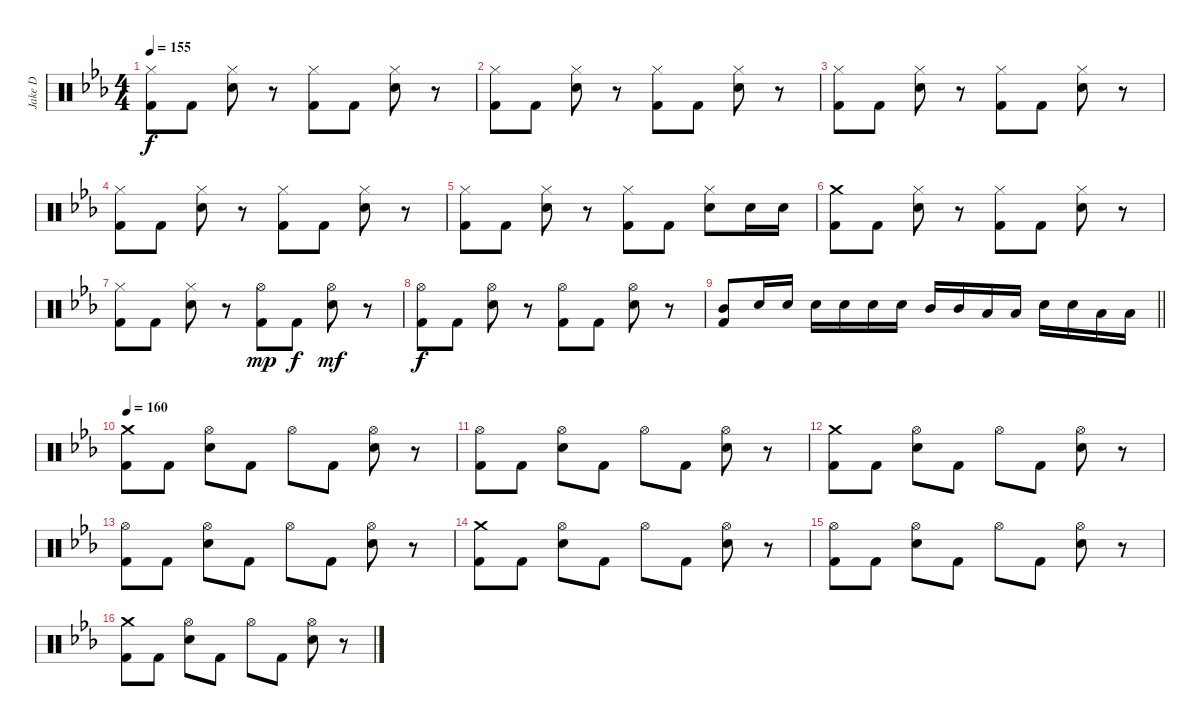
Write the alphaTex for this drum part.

\track ("Jake D" "Jake D") {instrument percussion}
\staff {score}
\articulation defaults
\ts (4 4)
\tempo 155
\clef neutral
\ks cminor
("Hi-Hat (closed)" "Kick (hit) 2").8{dy f} "Kick (hit) 2".8 ("Hi-Hat (closed)" "Electric Snare (hit)").8 r.8 ("Hi-Hat (closed)" "Kick (hit) 2").8 "Kick (hit) 2".8 ("Hi-Hat (closed)" "Electric Snare (hit)").8 r.8 |
("Hi-Hat (closed)" "Kick (hit) 2").8 "Kick (hit) 2".8 ("Hi-Hat (closed)" "Electric Snare (hit)").8 r.8 ("Hi-Hat (closed)" "Kick (hit) 2").8 "Kick (hit) 2".8 ("Hi-Hat (closed)" "Electric Snare (hit)").8 r.8 |
("Hi-Hat (closed)" "Kick (hit) 2").8 "Kick (hit) 2".8 ("Hi-Hat (closed)" "Electric Snare (hit)").8 r.8 ("Hi-Hat (closed)" "Kick (hit) 2").8 "Kick (hit) 2".8 ("Hi-Hat (closed)" "Electric Snare (hit)").8 r.8 |
("Hi-Hat (closed)" "Kick (hit) 2").8 "Kick (hit) 2".8 ("Hi-Hat (closed)" "Electric Snare (hit)").8 r.8 ("Hi-Hat (closed)" "Kick (hit) 2").8 "Kick (hit) 2".8 ("Hi-Hat (closed)" "Electric Snare (hit)").8 r.8 |
("Hi-Hat (closed)" "Kick (hit) 2").8 "Kick (hit) 2".8 ("Hi-Hat (closed)" "Electric Snare (hit)").8 r.8 ("Hi-Hat (closed)" "Kick (hit) 2").8 "Kick (hit) 2".8 ("Hi-Hat (closed)" "Electric Snare (hit)").8 "Electric Snare (hit)".16 "Electric Snare (hit)".16 |
("Crash medium (hit)" "Kick (hit) 2").8 "Kick (hit) 2".8 ("Hi-Hat (closed)" "Electric Snare (hit)").8 r.8 ("Hi-Hat (closed)" "Kick (hit) 2").8 "Kick (hit) 2".8 ("Hi-Hat (closed)" "Electric Snare (hit)").8 r.8 |
("Hi-Hat (closed)" "Kick (hit) 2").8 "Kick (hit) 2".8 ("Hi-Hat (closed)" "Electric Snare (hit)").8 r.8 ("Hi-Hat (open)" "Kick (hit) 2").8{dy mp} "Kick (hit) 2".8{dy f} ("Hi-Hat (open)" "Electric Snare (hit)").8{dy mf} r.8 |
("Hi-Hat (open)" "Kick (hit) 2").8{dy f} "Kick (hit) 2".8 ("Hi-Hat (open)" "Electric Snare (hit)").8 r.8 ("Hi-Hat (open)" "Kick (hit) 2").8 "Kick (hit) 2".8 ("Hi-Hat (open)" "Electric Snare (hit)").8 r.8 |
\barLineRight lightlight
("Mid Tom (hit)" "Kick (hit) 2").8 "Electric Snare (hit)".16 "Electric Snare (hit)".16 "Electric Snare (hit)".16 "Electric Snare (hit)".16 "Electric Snare (hit)".16 "Electric Snare (hit)".16 "Mid Tom (hit)".16 "Mid Tom (hit)".16 "Low Tom (hit)".16 "Low Tom (hit)".16 "Electric Snare (hit)".16 "Electric Snare (hit)".16 "Low Tom (hit)".16 "Low Tom (hit)".16 |
\tempo 160
("Crash medium (hit)" "Kick (hit) 2").8 "Kick (hit) 2".8 ("Hi-Hat (open)" "Electric Snare (hit)").8 "Kick (hit) 2".8 "Hi-Hat (open)".8 "Kick (hit) 2".8 ("Hi-Hat (open)" "Electric Snare (hit)").8 r.8 |
("Hi-Hat (open)" "Kick (hit) 2").8 "Kick (hit) 2".8 ("Hi-Hat (open)" "Electric Snare (hit)").8 "Kick (hit) 2".8 "Hi-Hat (open)".8 "Kick (hit) 2".8 ("Hi-Hat (open)" "Electric Snare (hit)").8 r.8 |
("Crash medium (hit)" "Kick (hit) 2").8 "Kick (hit) 2".8 ("Hi-Hat (open)" "Electric Snare (hit)").8 "Kick (hit) 2".8 "Hi-Hat (open)".8 "Kick (hit) 2".8 ("Hi-Hat (open)" "Electric Snare (hit)").8 r.8 |
("Hi-Hat (open)" "Kick (hit) 2").8 "Kick (hit) 2".8 ("Hi-Hat (open)" "Electric Snare (hit)").8 "Kick (hit) 2".8 "Hi-Hat (open)".8 "Kick (hit) 2".8 ("Hi-Hat (open)" "Electric Snare (hit)").8 r.8 |
("Crash medium (hit)" "Kick (hit) 2").8 "Kick (hit) 2".8 ("Hi-Hat (open)" "Electric Snare (hit)").8 "Kick (hit) 2".8 "Hi-Hat (open)".8 "Kick (hit) 2".8 ("Hi-Hat (open)" "Electric Snare (hit)").8 r.8 |
("Hi-Hat (open)" "Kick (hit) 2").8 "Kick (hit) 2".8 ("Hi-Hat (open)" "Electric Snare (hit)").8 "Kick (hit) 2".8 "Hi-Hat (open)".8 "Kick (hit) 2".8 ("Hi-Hat (open)" "Electric Snare (hit)").8 r.8 |
("Crash medium (hit)" "Kick (hit) 2").8 "Kick (hit) 2".8 ("Hi-Hat (open)" "Electric Snare (hit)").8 "Kick (hit) 2".8 "Hi-Hat (open)".8 "Kick (hit) 2".8 ("Hi-Hat (open)" "Electric Snare (hit)").8 r.8
